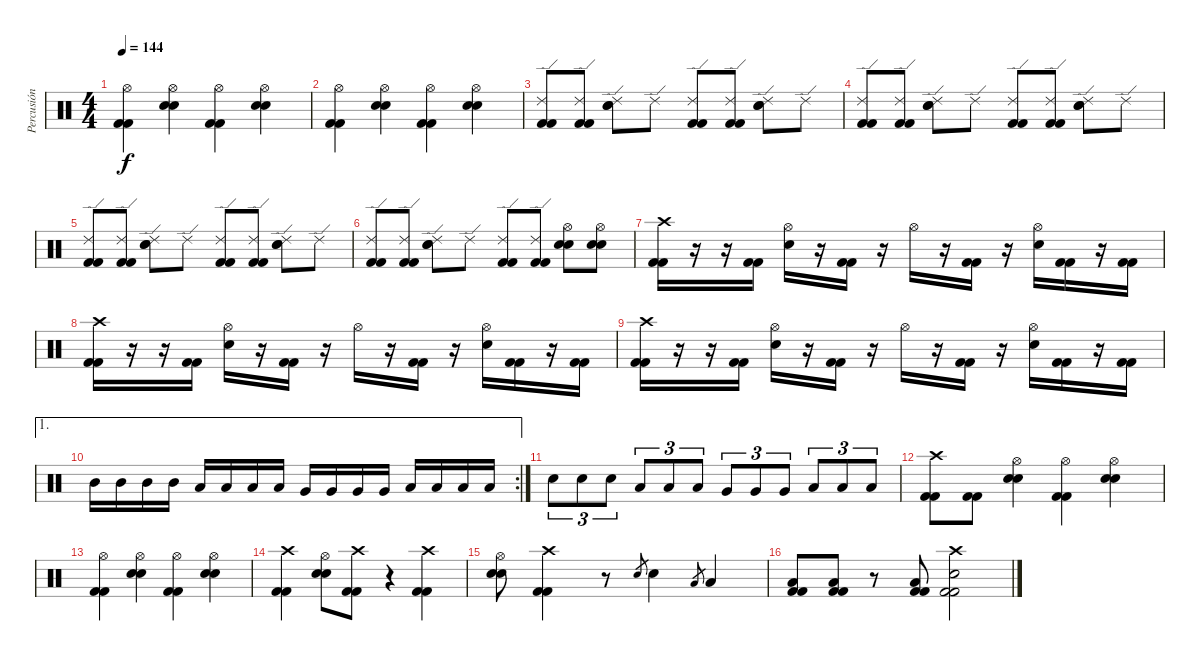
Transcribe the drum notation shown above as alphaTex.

\track ("Percusión" "Percusión") {instrument percussion}
\staff {score}
\articulation defaults
\ts (4 4)
\tempo 144
\clef neutral
\ks c
("Hi-Hat (open)" "Kick (hit) 2" "Kick (hit) 2").4{dy f} ("Hi-Hat (open)" "Snare (hit) 2" "Snare (hit) 2").4 ("Hi-Hat (open)" "Kick (hit) 2" "Kick (hit) 2").4 ("Hi-Hat (open)" "Snare (hit) 2" "Snare (hit) 2").4 |
("Hi-Hat (open)" "Kick (hit) 2" "Kick (hit) 2").4 ("Hi-Hat (open)" "Snare (hit) 2" "Snare (hit) 2").4 ("Hi-Hat (open)" "Kick (hit) 2" "Kick (hit) 2").4 ("Hi-Hat (open)" "Snare (hit) 2" "Snare (hit) 2").4 |
("Ride (edge) 2" "Kick (hit) 2" "Kick (hit) 2").8 ("Ride (edge) 2" "Kick (hit) 2" "Kick (hit) 2").8 ("Ride (edge) 2" "Snare (hit) 2" "Snare (hit) 2").8 "Ride (edge) 2".8 ("Ride (edge) 2" "Kick (hit) 2" "Kick (hit) 2").8 ("Ride (edge) 2" "Kick (hit) 2" "Kick (hit) 2").8 ("Ride (edge) 2" "Snare (hit) 2" "Snare (hit) 2").8 "Ride (edge) 2".8 |
("Ride (edge) 2" "Kick (hit) 2" "Kick (hit) 2").8 ("Ride (edge) 2" "Kick (hit) 2" "Kick (hit) 2").8 ("Ride (edge) 2" "Snare (hit) 2" "Snare (hit) 2").8 "Ride (edge) 2".8 ("Ride (edge) 2" "Kick (hit) 2" "Kick (hit) 2").8 ("Ride (edge) 2" "Kick (hit) 2" "Kick (hit) 2").8 ("Ride (edge) 2" "Snare (hit) 2" "Snare (hit) 2").8 "Ride (edge) 2".8 |
("Ride (edge) 2" "Kick (hit) 2" "Kick (hit) 2").8 ("Ride (edge) 2" "Kick (hit) 2" "Kick (hit) 2").8 ("Ride (edge) 2" "Snare (hit) 2" "Snare (hit) 2").8 "Ride (edge) 2".8 ("Ride (edge) 2" "Kick (hit) 2" "Kick (hit) 2").8 ("Ride (edge) 2" "Kick (hit) 2" "Kick (hit) 2").8 ("Ride (edge) 2" "Snare (hit) 2" "Snare (hit) 2").8 "Ride (edge) 2".8 |
("Ride (edge) 2" "Kick (hit) 2" "Kick (hit) 2").8 ("Ride (edge) 2" "Kick (hit) 2" "Kick (hit) 2").8 ("Ride (edge) 2" "Snare (hit) 2" "Snare (hit) 2").8 "Ride (edge) 2".8 ("Ride (edge) 2" "Kick (hit) 2" "Kick (hit) 2").8 ("Ride (edge) 2" "Kick (hit) 2" "Kick (hit) 2").8 ("Hi-Hat (open)" "Snare (hit) 2" "Snare (hit) 2").8 ("Hi-Hat (open)" "Snare (hit) 2" "Snare (hit) 2").8 |
("Crash high (hit)" "Kick (hit) 2" "Kick (hit) 2").16 r.16 r.16 ("Kick (hit) 2" "Kick (hit) 2").16 ("Hi-Hat (open)" "Snare (hit) 2").16 r.16 ("Kick (hit) 2" "Kick (hit) 2").16 r.16 "Hi-Hat (open)".16 r.16 ("Kick (hit) 2" "Kick (hit) 2").16 r.16 ("Hi-Hat (open)" "Snare (hit) 2").16 ("Kick (hit) 2" "Kick (hit) 2").16 r.16 ("Kick (hit) 2" "Kick (hit) 2").16 |
("Crash high (hit)" "Kick (hit) 2" "Kick (hit) 2").16 r.16 r.16 ("Kick (hit) 2" "Kick (hit) 2").16 ("Hi-Hat (open)" "Snare (hit) 2").16 r.16 ("Kick (hit) 2" "Kick (hit) 2").16 r.16 "Hi-Hat (open)".16 r.16 ("Kick (hit) 2" "Kick (hit) 2").16 r.16 ("Hi-Hat (open)" "Snare (hit) 2").16 ("Kick (hit) 2" "Kick (hit) 2").16 r.16 ("Kick (hit) 2" "Kick (hit) 2").16 |
("Crash high (hit)" "Kick (hit) 2" "Kick (hit) 2").16 r.16 r.16 ("Kick (hit) 2" "Kick (hit) 2").16 ("Hi-Hat (open)" "Snare (hit) 2").16 r.16 ("Kick (hit) 2" "Kick (hit) 2").16 r.16 "Hi-Hat (open)".16 r.16 ("Kick (hit) 2" "Kick (hit) 2").16 r.16 ("Hi-Hat (open)" "Snare (hit) 2").16 ("Kick (hit) 2" "Kick (hit) 2").16 r.16 ("Kick (hit) 2" "Kick (hit) 2").16 |
\ae 1
\rc 2 "Mid Tom (hit)".16 "Mid Tom (hit)".16 "Mid Tom (hit)".16 "Mid Tom (hit)".16 "Low Tom (hit)".16 "Low Tom (hit)".16 "Low Tom (hit)".16 "Low Tom (hit)".16 "Very Low Tom (hit)".16 "Very Low Tom (hit)".16 "Very Low Tom (hit)".16 "Very Low Tom (hit)".16 "Low Floor Tom (hit)".16 "Low Floor Tom (hit)".16 "Low Floor Tom (hit)".16 "Low Floor Tom (hit)".16
|
"Snare (hit) 2".8{tu (3 2)} "Snare (hit) 2".8{tu (3 2)} "Snare (hit) 2".8{tu (3 2)} "Low Tom (hit)".8{tu (3 2)} "Low Tom (hit)".8{tu (3 2)} "Low Tom (hit)".8{tu (3 2)} "Very Low Tom (hit)".8{tu (3 2)} "Very Low Tom (hit)".8{tu (3 2)} "Very Low Tom (hit)".8{tu (3 2)} "Low Floor Tom (hit)".8{tu (3 2)} "Low Floor Tom (hit)".8{tu (3 2)} "Low Floor Tom (hit)".8{tu (3 2)} |
("Crash high (hit)" "Kick (hit) 2" "Kick (hit) 2").8 ("Kick (hit) 2" "Kick (hit) 2").8 ("Hi-Hat (open)" "Snare (hit) 2" "Snare (hit) 2").4 ("Hi-Hat (open)" "Kick (hit) 2" "Kick (hit) 2").4 ("Hi-Hat (open)" "Snare (hit) 2" "Snare (hit) 2").4 |
("Hi-Hat (open)" "Kick (hit) 2" "Kick (hit) 2").4 ("Hi-Hat (open)" "Snare (hit) 2" "Snare (hit) 2").4 ("Hi-Hat (open)" "Kick (hit) 2" "Kick (hit) 2").4 ("Hi-Hat (open)" "Snare (hit) 2" "Snare (hit) 2").4 |
("Crash high (hit)" "Kick (hit) 2" "Kick (hit) 2").4 ("Hi-Hat (open)" "Snare (hit) 2" "Snare (hit) 2").8 ("Crash high (hit)" "Kick (hit) 2" "Kick (hit) 2").8 r.4 ("Crash high (hit)" "Kick (hit) 2" "Kick (hit) 2").4 |
("Hi-Hat (open)" "Snare (hit) 2" "Snare (hit) 2").8 ("Crash high (hit)" "Kick (hit) 2" "Kick (hit) 2").4 r.8 "Snare (hit) 2".8{gr} "Snare (hit) 2".4 "Low Tom (hit)".8{gr} "Low Tom (hit)".4 |
("Low Tom (hit)" "Kick (hit) 2" "Kick (hit) 2").8 ("Low Tom (hit)" "Kick (hit) 2" "Kick (hit) 2").8 r.8 ("Low Tom (hit)" "Kick (hit) 2" "Kick (hit) 2").8 ("Crash high (hit)" "Snare (hit) 2" "Kick (hit) 2" "Kick (hit) 2").2
